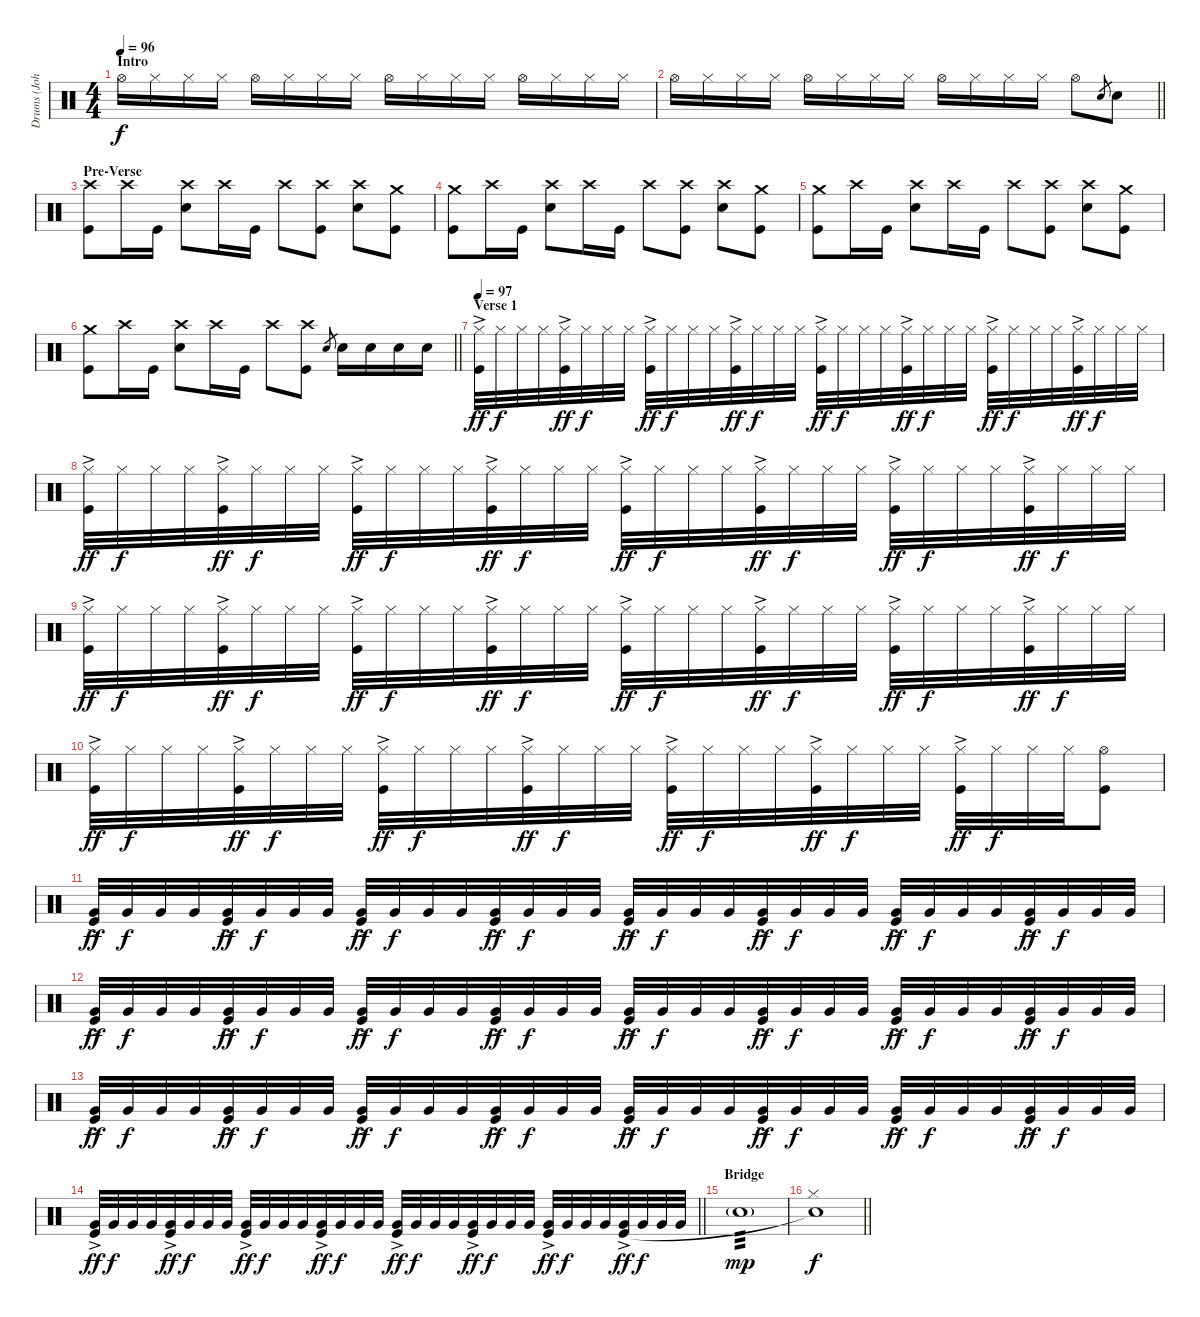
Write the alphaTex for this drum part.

\track ("Drums (John Ensminger)" "Drums (Joh") {instrument percussion}
\staff {score}
\articulation defaults
\ts (4 4)
\section ("" "Intro")
\tempo 96
\clef neutral
\ks c "Hi-Hat (open)".16{dy f} "Hi-Hat (closed)".16 "Hi-Hat (closed)".16 "Hi-Hat (closed)".16 "Hi-Hat (open)".16 "Hi-Hat (closed)".16 "Hi-Hat (closed)".16 "Hi-Hat (closed)".16 "Hi-Hat (open)".16 "Hi-Hat (closed)".16 "Hi-Hat (closed)".16 "Hi-Hat (closed)".16 "Hi-Hat (open)".16 "Hi-Hat (closed)".16 "Hi-Hat (closed)".16 "Hi-Hat (closed)".16
|
\barLineRight lightlight "Hi-Hat (open)".16 "Hi-Hat (closed)".16 "Hi-Hat (closed)".16 "Hi-Hat (closed)".16 "Hi-Hat (open)".16 "Hi-Hat (closed)".16 "Hi-Hat (closed)".16 "Hi-Hat (closed)".16 "Hi-Hat (open)".16 "Hi-Hat (closed)".16 "Hi-Hat (closed)".16 "Hi-Hat (closed)".16 "Hi-Hat (open)".8 "Electric Snare (hit)".8{gr} "Electric Snare (hit)".8
|
\section ("" "Pre-Verse")
("Crash high (hit)" "Kick (hit)").8 "Crash high (hit)".16 "Kick (hit)".16 ("Crash high (hit)" "Electric Snare (hit)").8 "Crash high (hit)".16 "Kick (hit)".16 "Crash high (hit)".8 ("Crash high (hit)" "Kick (hit)").8 ("Crash high (hit)" "Electric Snare (hit)").8 ("Crash medium (hit)" "Kick (hit)").8 |
("Crash medium (hit)" "Kick (hit)").8 "Crash high (hit)".16 "Kick (hit)".16 ("Crash high (hit)" "Electric Snare (hit)").8 "Crash high (hit)".16 "Kick (hit)".16 "Crash high (hit)".8 ("Crash high (hit)" "Kick (hit)").8 ("Crash high (hit)" "Electric Snare (hit)").8 ("Crash medium (hit)" "Kick (hit)").8 |
("Crash medium (hit)" "Kick (hit)").8 "Crash high (hit)".16 "Kick (hit)".16 ("Crash high (hit)" "Electric Snare (hit)").8 "Crash high (hit)".16 "Kick (hit)".16 "Crash high (hit)".8 ("Crash high (hit)" "Kick (hit)").8 ("Crash high (hit)" "Electric Snare (hit)").8 ("Crash medium (hit)" "Kick (hit)").8 |
\barLineRight lightlight
("Crash medium (hit)" "Kick (hit)").8 "Crash high (hit)".16 "Kick (hit)".16 ("Crash high (hit)" "Electric Snare (hit)").8 "Crash high (hit)".16 "Kick (hit)".16 "Crash high (hit)".8 ("Crash high (hit)" "Kick (hit)").8 "Electric Snare (hit)".8{gr} "Electric Snare (hit)".16 "Electric Snare (hit)".16 "Electric Snare (hit)".16 "Electric Snare (hit)".16 |
\section ("" "Verse 1")
\tempo 97
("Hi-Hat (closed)"{ac} "Kick (hit)").32{dy ff} "Hi-Hat (closed)".32{dy f} "Hi-Hat (closed)".32 "Hi-Hat (closed)".32 ("Hi-Hat (closed)"{ac} "Kick (hit)").32{dy ff} "Hi-Hat (closed)".32{dy f} "Hi-Hat (closed)".32 "Hi-Hat (closed)".32 ("Hi-Hat (closed)"{ac} "Kick (hit)").32{dy ff} "Hi-Hat (closed)".32{dy f} "Hi-Hat (closed)".32 "Hi-Hat (closed)".32 ("Hi-Hat (closed)"{ac} "Kick (hit)").32{dy ff} "Hi-Hat (closed)".32{dy f} "Hi-Hat (closed)".32 "Hi-Hat (closed)".32 ("Hi-Hat (closed)"{ac} "Kick (hit)").32{dy ff} "Hi-Hat (closed)".32{dy f} "Hi-Hat (closed)".32 "Hi-Hat (closed)".32 ("Hi-Hat (closed)"{ac} "Kick (hit)").32{dy ff} "Hi-Hat (closed)".32{dy f} "Hi-Hat (closed)".32 "Hi-Hat (closed)".32 ("Hi-Hat (closed)"{ac} "Kick (hit)").32{dy ff} "Hi-Hat (closed)".32{dy f} "Hi-Hat (closed)".32 "Hi-Hat (closed)".32 ("Hi-Hat (closed)"{ac} "Kick (hit)").32{dy ff} "Hi-Hat (closed)".32{dy f} "Hi-Hat (closed)".32 "Hi-Hat (closed)".32 |
("Hi-Hat (closed)"{ac} "Kick (hit)").32{dy ff} "Hi-Hat (closed)".32{dy f} "Hi-Hat (closed)".32 "Hi-Hat (closed)".32 ("Hi-Hat (closed)"{ac} "Kick (hit)").32{dy ff} "Hi-Hat (closed)".32{dy f} "Hi-Hat (closed)".32 "Hi-Hat (closed)".32 ("Hi-Hat (closed)"{ac} "Kick (hit)").32{dy ff} "Hi-Hat (closed)".32{dy f} "Hi-Hat (closed)".32 "Hi-Hat (closed)".32 ("Hi-Hat (closed)"{ac} "Kick (hit)").32{dy ff} "Hi-Hat (closed)".32{dy f} "Hi-Hat (closed)".32 "Hi-Hat (closed)".32 ("Hi-Hat (closed)"{ac} "Kick (hit)").32{dy ff} "Hi-Hat (closed)".32{dy f} "Hi-Hat (closed)".32 "Hi-Hat (closed)".32 ("Hi-Hat (closed)"{ac} "Kick (hit)").32{dy ff} "Hi-Hat (closed)".32{dy f} "Hi-Hat (closed)".32 "Hi-Hat (closed)".32 ("Hi-Hat (closed)"{ac} "Kick (hit)").32{dy ff} "Hi-Hat (closed)".32{dy f} "Hi-Hat (closed)".32 "Hi-Hat (closed)".32 ("Hi-Hat (closed)"{ac} "Kick (hit)").32{dy ff} "Hi-Hat (closed)".32{dy f} "Hi-Hat (closed)".32 "Hi-Hat (closed)".32 |
("Hi-Hat (closed)"{ac} "Kick (hit)").32{dy ff} "Hi-Hat (closed)".32{dy f} "Hi-Hat (closed)".32 "Hi-Hat (closed)".32 ("Hi-Hat (closed)"{ac} "Kick (hit)").32{dy ff} "Hi-Hat (closed)".32{dy f} "Hi-Hat (closed)".32 "Hi-Hat (closed)".32 ("Hi-Hat (closed)"{ac} "Kick (hit)").32{dy ff} "Hi-Hat (closed)".32{dy f} "Hi-Hat (closed)".32 "Hi-Hat (closed)".32 ("Hi-Hat (closed)"{ac} "Kick (hit)").32{dy ff} "Hi-Hat (closed)".32{dy f} "Hi-Hat (closed)".32 "Hi-Hat (closed)".32 ("Hi-Hat (closed)"{ac} "Kick (hit)").32{dy ff} "Hi-Hat (closed)".32{dy f} "Hi-Hat (closed)".32 "Hi-Hat (closed)".32 ("Hi-Hat (closed)"{ac} "Kick (hit)").32{dy ff} "Hi-Hat (closed)".32{dy f} "Hi-Hat (closed)".32 "Hi-Hat (closed)".32 ("Hi-Hat (closed)"{ac} "Kick (hit)").32{dy ff} "Hi-Hat (closed)".32{dy f} "Hi-Hat (closed)".32 "Hi-Hat (closed)".32 ("Hi-Hat (closed)"{ac} "Kick (hit)").32{dy ff} "Hi-Hat (closed)".32{dy f} "Hi-Hat (closed)".32 "Hi-Hat (closed)".32 |
("Hi-Hat (closed)"{ac} "Kick (hit)").32{dy ff} "Hi-Hat (closed)".32{dy f} "Hi-Hat (closed)".32 "Hi-Hat (closed)".32 ("Hi-Hat (closed)"{ac} "Kick (hit)").32{dy ff} "Hi-Hat (closed)".32{dy f} "Hi-Hat (closed)".32 "Hi-Hat (closed)".32 ("Hi-Hat (closed)"{ac} "Kick (hit)").32{dy ff} "Hi-Hat (closed)".32{dy f} "Hi-Hat (closed)".32 "Hi-Hat (closed)".32 ("Hi-Hat (closed)"{ac} "Kick (hit)").32{dy ff} "Hi-Hat (closed)".32{dy f} "Hi-Hat (closed)".32 "Hi-Hat (closed)".32 ("Hi-Hat (closed)"{ac} "Kick (hit)").32{dy ff} "Hi-Hat (closed)".32{dy f} "Hi-Hat (closed)".32 "Hi-Hat (closed)".32 ("Hi-Hat (closed)"{ac} "Kick (hit)").32{dy ff} "Hi-Hat (closed)".32{dy f} "Hi-Hat (closed)".32 "Hi-Hat (closed)".32 ("Hi-Hat (closed)"{ac} "Kick (hit)").32{dy ff} "Hi-Hat (closed)".32{dy f} "Hi-Hat (closed)".32 "Hi-Hat (closed)".32 ("Hi-Hat (open)" "Kick (hit)").8 |
("Very Low Tom (hit)"{ac} "Kick (hit)").32{dy ff} "Very Low Tom (hit)".32{dy f} "Very Low Tom (hit)".32 "Very Low Tom (hit)".32 ("Very Low Tom (hit)"{ac} "Kick (hit)").32{dy ff} "Very Low Tom (hit)".32{dy f} "Very Low Tom (hit)".32 "Very Low Tom (hit)".32 ("Very Low Tom (hit)"{ac} "Kick (hit)").32{dy ff} "Very Low Tom (hit)".32{dy f} "Very Low Tom (hit)".32 "Very Low Tom (hit)".32 ("Very Low Tom (hit)"{ac} "Kick (hit)").32{dy ff} "Very Low Tom (hit)".32{dy f} "Very Low Tom (hit)".32 "Very Low Tom (hit)".32 ("Very Low Tom (hit)"{ac} "Kick (hit)").32{dy ff} "Very Low Tom (hit)".32{dy f} "Very Low Tom (hit)".32 "Very Low Tom (hit)".32 ("Very Low Tom (hit)"{ac} "Kick (hit)").32{dy ff} "Very Low Tom (hit)".32{dy f} "Very Low Tom (hit)".32 "Very Low Tom (hit)".32 ("Very Low Tom (hit)"{ac} "Kick (hit)").32{dy ff} "Very Low Tom (hit)".32{dy f} "Very Low Tom (hit)".32 "Very Low Tom (hit)".32 ("Very Low Tom (hit)"{ac} "Kick (hit)").32{dy ff} "Very Low Tom (hit)".32{dy f} "Very Low Tom (hit)".32 "Very Low Tom (hit)".32 |
("Very Low Tom (hit)"{ac} "Kick (hit)").32{dy ff} "Very Low Tom (hit)".32{dy f} "Very Low Tom (hit)".32 "Very Low Tom (hit)".32 ("Very Low Tom (hit)"{ac} "Kick (hit)").32{dy ff} "Very Low Tom (hit)".32{dy f} "Very Low Tom (hit)".32 "Very Low Tom (hit)".32 ("Very Low Tom (hit)"{ac} "Kick (hit)").32{dy ff} "Very Low Tom (hit)".32{dy f} "Very Low Tom (hit)".32 "Very Low Tom (hit)".32 ("Very Low Tom (hit)"{ac} "Kick (hit)").32{dy ff} "Very Low Tom (hit)".32{dy f} "Very Low Tom (hit)".32 "Very Low Tom (hit)".32 ("Very Low Tom (hit)"{ac} "Kick (hit)").32{dy ff} "Very Low Tom (hit)".32{dy f} "Very Low Tom (hit)".32 "Very Low Tom (hit)".32 ("Very Low Tom (hit)"{ac} "Kick (hit)").32{dy ff} "Very Low Tom (hit)".32{dy f} "Very Low Tom (hit)".32 "Very Low Tom (hit)".32 ("Very Low Tom (hit)"{ac} "Kick (hit)").32{dy ff} "Very Low Tom (hit)".32{dy f} "Very Low Tom (hit)".32 "Very Low Tom (hit)".32 ("Very Low Tom (hit)"{ac} "Kick (hit)").32{dy ff} "Very Low Tom (hit)".32{dy f} "Very Low Tom (hit)".32 "Very Low Tom (hit)".32 |
("Very Low Tom (hit)"{ac} "Kick (hit)").32{dy ff} "Very Low Tom (hit)".32{dy f} "Very Low Tom (hit)".32 "Very Low Tom (hit)".32 ("Very Low Tom (hit)"{ac} "Kick (hit)").32{dy ff} "Very Low Tom (hit)".32{dy f} "Very Low Tom (hit)".32 "Very Low Tom (hit)".32 ("Very Low Tom (hit)"{ac} "Kick (hit)").32{dy ff} "Very Low Tom (hit)".32{dy f} "Very Low Tom (hit)".32 "Very Low Tom (hit)".32 ("Very Low Tom (hit)"{ac} "Kick (hit)").32{dy ff} "Very Low Tom (hit)".32{dy f} "Very Low Tom (hit)".32 "Very Low Tom (hit)".32 ("Very Low Tom (hit)"{ac} "Kick (hit)").32{dy ff} "Very Low Tom (hit)".32{dy f} "Very Low Tom (hit)".32 "Very Low Tom (hit)".32 ("Very Low Tom (hit)"{ac} "Kick (hit)").32{dy ff} "Very Low Tom (hit)".32{dy f} "Very Low Tom (hit)".32 "Very Low Tom (hit)".32 ("Very Low Tom (hit)"{ac} "Kick (hit)").32{dy ff} "Very Low Tom (hit)".32{dy f} "Very Low Tom (hit)".32 "Very Low Tom (hit)".32 ("Very Low Tom (hit)"{ac} "Kick (hit)").32{dy ff} "Very Low Tom (hit)".32{dy f} "Very Low Tom (hit)".32 "Very Low Tom (hit)".32 |
\barLineRight lightlight
("Very Low Tom (hit)"{ac} "Kick (hit)").32{dy ff} "Very Low Tom (hit)".32{dy f} "Very Low Tom (hit)".32 "Very Low Tom (hit)".32 ("Very Low Tom (hit)"{ac} "Kick (hit)").32{dy ff} "Very Low Tom (hit)".32{dy f} "Very Low Tom (hit)".32 "Very Low Tom (hit)".32 ("Very Low Tom (hit)"{ac} "Kick (hit)").32{dy ff} "Very Low Tom (hit)".32{dy f} "Very Low Tom (hit)".32 "Very Low Tom (hit)".32 ("Very Low Tom (hit)"{ac} "Kick (hit)").32{dy ff} "Very Low Tom (hit)".32{dy f} "Very Low Tom (hit)".32 "Very Low Tom (hit)".32 ("Very Low Tom (hit)"{ac} "Kick (hit)").32{dy ff} "Very Low Tom (hit)".32{dy f} "Very Low Tom (hit)".32 "Very Low Tom (hit)".32 ("Very Low Tom (hit)"{ac} "Kick (hit)").32{dy ff} "Very Low Tom (hit)".32{dy f} "Very Low Tom (hit)".32 "Very Low Tom (hit)".32 ("Very Low Tom (hit)"{ac} "Kick (hit)").32{dy ff} "Very Low Tom (hit)".32{dy f} "Very Low Tom (hit)".32 "Very Low Tom (hit)".32 ("Very Low Tom (hit)"{ac} "Kick (hit)").32{dy ff} "Very Low Tom (hit)".32{dy f} "Very Low Tom (hit)".32 "Very Low Tom (hit)".32 |
\section ("" "Bridge")
"Snare (hit) 2"{g}.1{tp 3 dy mp} |
\barLineRight lightlight
("Hi-Hat (closed)" "Snare (hit)"{t}).1{dy f}
